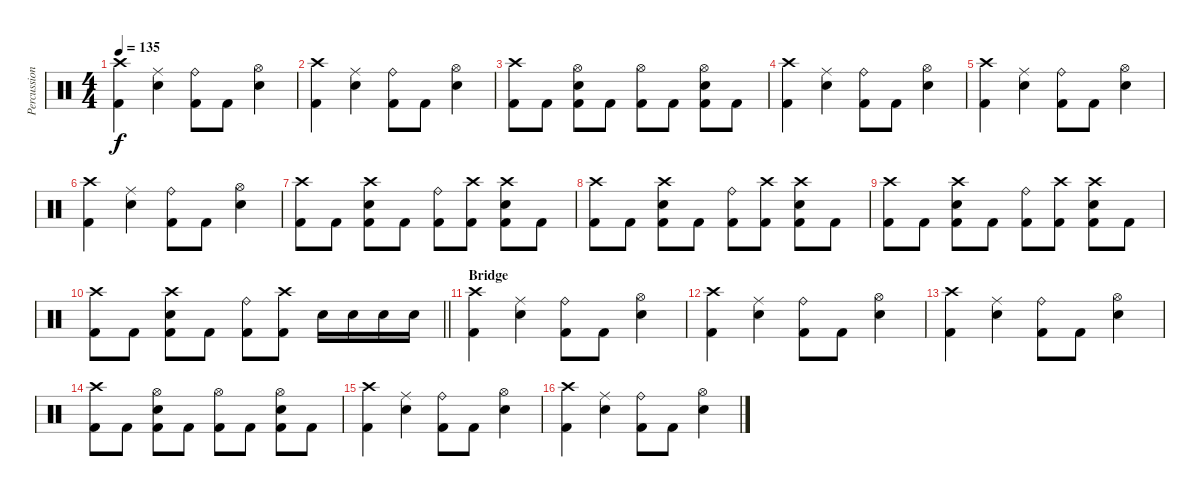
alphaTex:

\track ("Percussion" "Percussion") {instrument percussion}
\staff {score}
\articulation defaults
\ts (4 4)
\tempo 135
\clef neutral
\ks c
("Crash high (hit)" "Kick (hit) 2").4{dy f} ("Ride (middle)" "Electric Snare (hit)").4 ("Ride (bell)" "Kick (hit) 2").8 "Kick (hit) 2".8 ("Hi-Hat (open)" "Electric Snare (hit)").4 |
("Crash high (hit)" "Kick (hit) 2").4 ("Ride (middle)" "Electric Snare (hit)").4 ("Ride (bell)" "Kick (hit) 2").8 "Kick (hit) 2".8 ("Hi-Hat (open)" "Electric Snare (hit)").4 |
("Crash high (hit)" "Kick (hit) 2").8 "Kick (hit) 2".8 ("Hi-Hat (open)" "Electric Snare (hit)" "Kick (hit) 2").8 "Kick (hit) 2".8 ("Hi-Hat (open)" "Kick (hit) 2").8 "Kick (hit) 2".8 ("Hi-Hat (open)" "Electric Snare (hit)" "Kick (hit) 2").8 "Kick (hit) 2".8 |
("Crash high (hit)" "Kick (hit) 2").4 ("Ride (middle)" "Electric Snare (hit)").4 ("Ride (bell)" "Kick (hit) 2").8 "Kick (hit) 2".8 ("Hi-Hat (open)" "Electric Snare (hit)").4 |
("Crash high (hit)" "Kick (hit) 2").4 ("Ride (middle)" "Electric Snare (hit)").4 ("Ride (bell)" "Kick (hit) 2").8 "Kick (hit) 2".8 ("Hi-Hat (open)" "Electric Snare (hit)").4 |
("Crash high (hit)" "Kick (hit) 2").4 ("Ride (middle)" "Electric Snare (hit)").4 ("Ride (bell)" "Kick (hit) 2").8 "Kick (hit) 2".8 ("Hi-Hat (open)" "Electric Snare (hit)").4 |
("Crash high (hit)" "Kick (hit) 2").8 "Kick (hit) 2".8 ("Crash high (hit)" "Electric Snare (hit)" "Kick (hit) 2").8 "Kick (hit) 2".8 ("Ride (bell)" "Kick (hit) 2").8 ("Crash high (hit)" "Kick (hit) 2").8 ("Crash high (hit)" "Electric Snare (hit)" "Kick (hit) 2").8 "Kick (hit) 2".8 |
("Crash high (hit)" "Kick (hit) 2").8 "Kick (hit) 2".8 ("Crash high (hit)" "Electric Snare (hit)" "Kick (hit) 2").8 "Kick (hit) 2".8 ("Ride (bell)" "Kick (hit) 2").8 ("Crash high (hit)" "Kick (hit) 2").8 ("Crash high (hit)" "Electric Snare (hit)" "Kick (hit) 2").8 "Kick (hit) 2".8 |
("Crash high (hit)" "Kick (hit) 2").8 "Kick (hit) 2".8 ("Crash high (hit)" "Electric Snare (hit)" "Kick (hit) 2").8 "Kick (hit) 2".8 ("Ride (bell)" "Kick (hit) 2").8 ("Crash high (hit)" "Kick (hit) 2").8 ("Crash high (hit)" "Electric Snare (hit)" "Kick (hit) 2").8 "Kick (hit) 2".8 |
\barLineRight lightlight
("Crash high (hit)" "Kick (hit) 2").8 "Kick (hit) 2".8 ("Crash high (hit)" "Electric Snare (hit)" "Kick (hit) 2").8 "Kick (hit) 2".8 ("Ride (bell)" "Kick (hit) 2").8 ("Crash high (hit)" "Kick (hit) 2").8 "Electric Snare (hit)".16 "Electric Snare (hit)".16 "Electric Snare (hit)".16 "Electric Snare (hit)".16 |
\section ("" "Bridge")
("Crash high (hit)" "Kick (hit) 2").4 ("Ride (middle)" "Electric Snare (hit)").4 ("Ride (bell)" "Kick (hit) 2").8 "Kick (hit) 2".8 ("Hi-Hat (open)" "Electric Snare (hit)").4 |
("Crash high (hit)" "Kick (hit) 2").4 ("Ride (middle)" "Electric Snare (hit)").4 ("Ride (bell)" "Kick (hit) 2").8 "Kick (hit) 2".8 ("Hi-Hat (open)" "Electric Snare (hit)").4 |
("Crash high (hit)" "Kick (hit) 2").4 ("Ride (middle)" "Electric Snare (hit)").4 ("Ride (bell)" "Kick (hit) 2").8 "Kick (hit) 2".8 ("Hi-Hat (open)" "Electric Snare (hit)").4 |
("Crash high (hit)" "Kick (hit) 2").8 "Kick (hit) 2".8 ("Hi-Hat (open)" "Electric Snare (hit)" "Kick (hit) 2").8 "Kick (hit) 2".8 ("Hi-Hat (open)" "Kick (hit) 2").8 "Kick (hit) 2".8 ("Hi-Hat (open)" "Electric Snare (hit)" "Kick (hit) 2").8 "Kick (hit) 2".8 |
("Crash high (hit)" "Kick (hit) 2").4 ("Ride (middle)" "Electric Snare (hit)").4 ("Ride (bell)" "Kick (hit) 2").8 "Kick (hit) 2".8 ("Hi-Hat (open)" "Electric Snare (hit)").4 |
("Crash high (hit)" "Kick (hit) 2").4 ("Ride (middle)" "Electric Snare (hit)").4 ("Ride (bell)" "Kick (hit) 2").8 "Kick (hit) 2".8 ("Hi-Hat (open)" "Electric Snare (hit)").4
